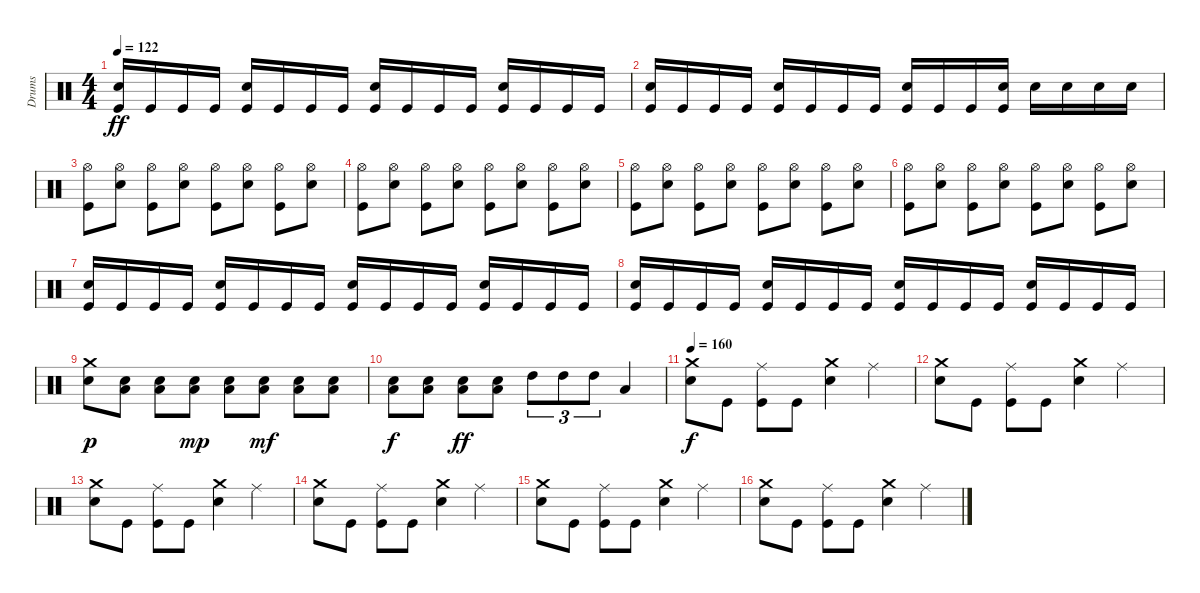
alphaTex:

\track ("Drums" "Drums") {instrument percussion}
\staff {score}
\articulation defaults
\ts (4 4)
\tempo 122
\clef neutral
\ks c
("Electric Snare (hit)" "Kick (hit)").16{dy ff} "Kick (hit)".16 "Kick (hit)".16 "Kick (hit)".16 ("Electric Snare (hit)" "Kick (hit)").16 "Kick (hit)".16 "Kick (hit)".16 "Kick (hit)".16 ("Electric Snare (hit)" "Kick (hit)").16 "Kick (hit)".16 "Kick (hit)".16 "Kick (hit)".16 ("Electric Snare (hit)" "Kick (hit)").16 "Kick (hit)".16 "Kick (hit)".16 "Kick (hit)".16 |
("Electric Snare (hit)" "Kick (hit)").16 "Kick (hit)".16 "Kick (hit)".16 "Kick (hit)".16 ("Electric Snare (hit)" "Kick (hit)").16 "Kick (hit)".16 "Kick (hit)".16 "Kick (hit)".16 ("Electric Snare (hit)" "Kick (hit)").16 "Kick (hit)".16 "Kick (hit)".16 ("Electric Snare (hit)" "Kick (hit)").16 "Electric Snare (hit)".16 "Electric Snare (hit)".16 "Electric Snare (hit)".16 "Electric Snare (hit)".16 |
("Hi-Hat (open)" "Kick (hit)").8 ("Hi-Hat (open)" "Electric Snare (hit)").8 ("Hi-Hat (open)" "Kick (hit)").8 ("Hi-Hat (open)" "Electric Snare (hit)").8 ("Hi-Hat (open)" "Kick (hit)").8 ("Hi-Hat (open)" "Electric Snare (hit)").8 ("Hi-Hat (open)" "Kick (hit)").8 ("Hi-Hat (open)" "Electric Snare (hit)").8 |
("Hi-Hat (open)" "Kick (hit)").8 ("Hi-Hat (open)" "Electric Snare (hit)").8 ("Hi-Hat (open)" "Kick (hit)").8 ("Hi-Hat (open)" "Electric Snare (hit)").8 ("Hi-Hat (open)" "Kick (hit)").8 ("Hi-Hat (open)" "Electric Snare (hit)").8 ("Hi-Hat (open)" "Kick (hit)").8 ("Hi-Hat (open)" "Electric Snare (hit)").8 |
("Hi-Hat (open)" "Kick (hit)").8 ("Hi-Hat (open)" "Electric Snare (hit)").8 ("Hi-Hat (open)" "Kick (hit)").8 ("Hi-Hat (open)" "Electric Snare (hit)").8 ("Hi-Hat (open)" "Kick (hit)").8 ("Hi-Hat (open)" "Electric Snare (hit)").8 ("Hi-Hat (open)" "Kick (hit)").8 ("Hi-Hat (open)" "Electric Snare (hit)").8 |
("Hi-Hat (open)" "Kick (hit)").8 ("Hi-Hat (open)" "Electric Snare (hit)").8 ("Hi-Hat (open)" "Kick (hit)").8 ("Hi-Hat (open)" "Electric Snare (hit)").8 ("Hi-Hat (open)" "Kick (hit)").8 ("Hi-Hat (open)" "Electric Snare (hit)").8 ("Hi-Hat (open)" "Kick (hit)").8 ("Hi-Hat (open)" "Electric Snare (hit)").8 |
("Electric Snare (hit)" "Kick (hit)").16 "Kick (hit)".16 "Kick (hit)".16 "Kick (hit)".16 ("Electric Snare (hit)" "Kick (hit)").16 "Kick (hit)".16 "Kick (hit)".16 "Kick (hit)".16 ("Electric Snare (hit)" "Kick (hit)").16 "Kick (hit)".16 "Kick (hit)".16 "Kick (hit)".16 ("Electric Snare (hit)" "Kick (hit)").16 "Kick (hit)".16 "Kick (hit)".16 "Kick (hit)".16 |
("Electric Snare (hit)" "Kick (hit)").16 "Kick (hit)".16 "Kick (hit)".16 "Kick (hit)".16 ("Electric Snare (hit)" "Kick (hit)").16 "Kick (hit)".16 "Kick (hit)".16 "Kick (hit)".16 ("Electric Snare (hit)" "Kick (hit)").16 "Kick (hit)".16 "Kick (hit)".16 "Kick (hit)".16 ("Electric Snare (hit)" "Kick (hit)").16 "Kick (hit)".16 "Kick (hit)".16 "Kick (hit)".16 |
("Crash medium (hit)" "Electric Snare (hit)").8{dy p} ("Low Floor Tom (hit)" "Electric Snare (hit)").8 ("Low Floor Tom (hit)" "Electric Snare (hit)").8 ("Low Floor Tom (hit)" "Electric Snare (hit)").8{dy mp} ("Low Floor Tom (hit)" "Electric Snare (hit)").8 ("Low Floor Tom (hit)" "Electric Snare (hit)").8{dy mf} ("Low Floor Tom (hit)" "Electric Snare (hit)").8 ("Low Floor Tom (hit)" "Electric Snare (hit)").8 |
("Low Floor Tom (hit)" "Electric Snare (hit)").8{dy f} ("Low Floor Tom (hit)" "Electric Snare (hit)").8 ("Low Floor Tom (hit)" "Electric Snare (hit)").8{dy ff} ("Low Floor Tom (hit)" "Electric Snare (hit)").8 "High Tom (hit)".8{tu (3 2)} "High Tom (hit)".8{tu (3 2)} "High Tom (hit)".8{tu (3 2)} "Low Tom (hit)".4 |
\tempo 160
("Crash medium (hit)" "Electric Snare (hit)").8{dy f} "Kick (hit)".8 ("Ride (middle)" "Kick (hit)").8 "Kick (hit)".8 ("Crash medium (hit)" "Electric Snare (hit)").4 "Ride (middle)".4 |
("Crash medium (hit)" "Electric Snare (hit)").8 "Kick (hit)".8 ("Ride (middle)" "Kick (hit)").8 "Kick (hit)".8 ("Crash medium (hit)" "Electric Snare (hit)").4 "Ride (middle)".4 |
("Crash medium (hit)" "Electric Snare (hit)").8 "Kick (hit)".8 ("Ride (middle)" "Kick (hit)").8 "Kick (hit)".8 ("Crash medium (hit)" "Electric Snare (hit)").4 "Ride (middle)".4 |
("Crash medium (hit)" "Electric Snare (hit)").8 "Kick (hit)".8 ("Ride (middle)" "Kick (hit)").8 "Kick (hit)".8 ("Crash medium (hit)" "Electric Snare (hit)").4 "Ride (middle)".4 |
("Crash medium (hit)" "Electric Snare (hit)").8 "Kick (hit)".8 ("Ride (middle)" "Kick (hit)").8 "Kick (hit)".8 ("Crash medium (hit)" "Electric Snare (hit)").4 "Ride (middle)".4 |
("Crash medium (hit)" "Electric Snare (hit)").8 "Kick (hit)".8 ("Ride (middle)" "Kick (hit)").8 "Kick (hit)".8 ("Crash medium (hit)" "Electric Snare (hit)").4 "Ride (middle)".4
